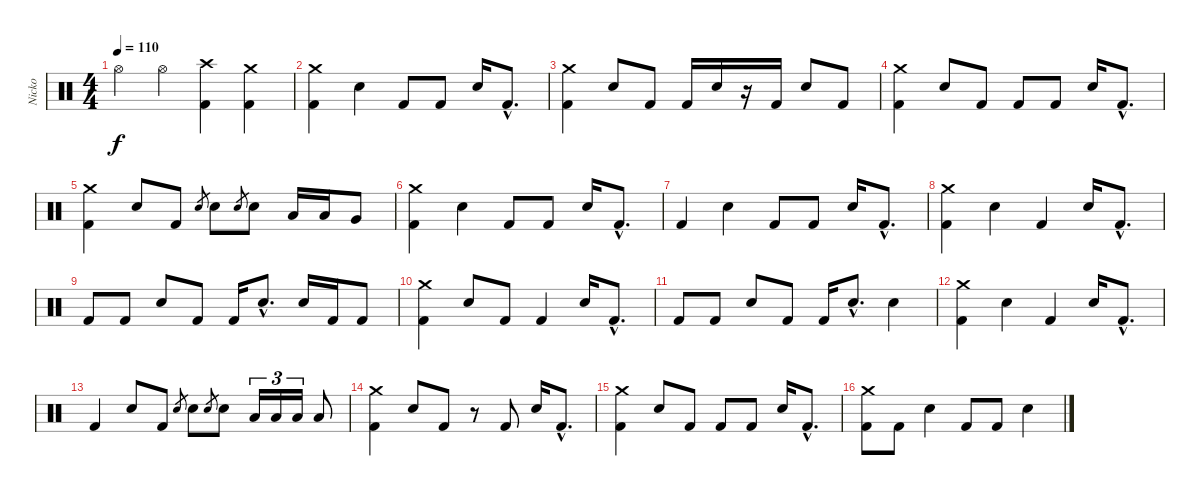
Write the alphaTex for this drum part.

\track ("Nicko" "Nicko") {instrument percussion}
\staff {score}
\articulation defaults
\ts (4 4)
\tempo 110
\clef neutral
\ks c "Hi-Hat (open)".4{dy f} "Hi-Hat (open)".4
("Crash high (hit)" "Kick (hit) 2").4 ("Crash medium (hit)" "Kick (hit) 2").4 |
("Crash medium (hit)" "Kick (hit) 2").4 "Electric Snare (hit)".4 "Kick (hit) 2".8 "Kick (hit) 2".8 "Electric Snare (hit)".16 "Kick (hit) 2"{hac}.8{d} |
("Crash medium (hit)" "Kick (hit) 2").4 "Electric Snare (hit)".8 "Kick (hit) 2".8 "Kick (hit) 2".16 "Electric Snare (hit)".16 r.16 "Kick (hit) 2".16 "Electric Snare (hit)".8 "Kick (hit) 2".8 |
("Crash medium (hit)" "Kick (hit) 2").4 "Electric Snare (hit)".8 "Kick (hit) 2".8 "Kick (hit) 2".8 "Kick (hit) 2".8 "Electric Snare (hit)".16 "Kick (hit) 2"{hac}.8{d} |
("Crash medium (hit)" "Kick (hit) 2").4 "Electric Snare (hit)".8 "Kick (hit) 2".8 "Electric Snare (hit)".8{gr} "Electric Snare (hit)".8 "Electric Snare (hit)".8{gr} "Electric Snare (hit)".8 "Low Tom (hit)".16 "Low Tom (hit)".16 "Very Low Tom (hit)".8 |
("Crash medium (hit)" "Kick (hit) 2").4 "Electric Snare (hit)".4 "Kick (hit) 2".8 "Kick (hit) 2".8 "Electric Snare (hit)".16 "Kick (hit) 2"{hac}.8{d} |
"Kick (hit) 2".4 "Electric Snare (hit)".4 "Kick (hit) 2".8 "Kick (hit) 2".8 "Electric Snare (hit)".16 "Kick (hit) 2"{hac}.8{d} |
("Crash medium (hit)" "Kick (hit) 2").4 "Electric Snare (hit)".4 "Kick (hit) 2".4 "Electric Snare (hit)".16 "Kick (hit) 2"{hac}.8{d} |
"Kick (hit) 2".8 "Kick (hit) 2".8 "Electric Snare (hit)".8 "Kick (hit) 2".8 "Kick (hit) 2".16 "Electric Snare (hit)"{hac}.8{d} "Electric Snare (hit)".16 "Kick (hit) 2".16 "Kick (hit) 2".8 |
("Crash medium (hit)" "Kick (hit) 2").4 "Electric Snare (hit)".8 "Kick (hit) 2".8 "Kick (hit) 2".4 "Electric Snare (hit)".16 "Kick (hit) 2"{hac}.8{d} |
"Kick (hit) 2".8 "Kick (hit) 2".8 "Electric Snare (hit)".8 "Kick (hit) 2".8 "Kick (hit) 2".16 "Electric Snare (hit)"{hac}.8{d} "Electric Snare (hit)".4 |
("Crash medium (hit)" "Kick (hit) 2").4 "Electric Snare (hit)".4 "Kick (hit) 2".4 "Electric Snare (hit)".16 "Kick (hit) 2"{hac}.8{d} |
"Kick (hit) 2".4 "Electric Snare (hit)".8 "Kick (hit) 2".8 "Electric Snare (hit)".8{gr} "Electric Snare (hit)".8 "Electric Snare (hit)".8{gr} "Electric Snare (hit)".8 "Low Tom (hit)".16{tu (3 2)} "Low Tom (hit)".16{tu (3 2)} "Low Tom (hit)".16{tu (3 2)} "Low Tom (hit)".8 |
("Crash medium (hit)" "Kick (hit) 2").4 "Electric Snare (hit)".8 "Kick (hit) 2".8 r.8 "Kick (hit) 2".8 "Electric Snare (hit)".16 "Kick (hit) 2"{hac}.8{d} |
("Crash medium (hit)" "Kick (hit) 2").4 "Electric Snare (hit)".8 "Kick (hit) 2".8 "Kick (hit) 2".8 "Kick (hit) 2".8 "Electric Snare (hit)".16 "Kick (hit) 2"{hac}.8{d} |
("Crash medium (hit)" "Kick (hit) 2").8 "Kick (hit) 2".8 "Electric Snare (hit)".4 "Kick (hit) 2".8 "Kick (hit) 2".8 "Electric Snare (hit)".4
